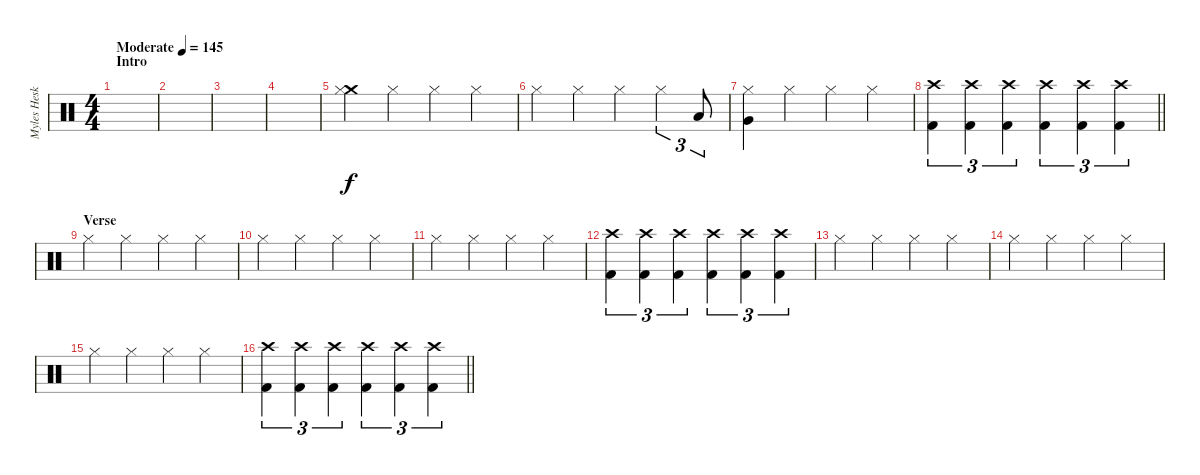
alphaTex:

\track ("Myles Heskett" "Myles Hesk") {instrument percussion}
\staff {score}
\articulation defaults
\ts (4 4)
\section ("" "Intro")
\tempo (145 "Moderate")
\clef neutral
\ks c
|
|
|
|
("Crash medium (hit)" "Hi-Hat (closed)").4 "Hi-Hat (closed)".4 "Hi-Hat (closed)".4 "Hi-Hat (closed)".4 |
"Hi-Hat (closed)".4 "Hi-Hat (closed)".4 "Hi-Hat (closed)".4 "Hi-Hat (closed)".4{tu (3 2)} "Low Tom (hit)".8{tu (3 2)} |
("Hi-Hat (closed)" "Very Low Tom (hit)").4 "Hi-Hat (closed)".4 "Hi-Hat (closed)".4 "Hi-Hat (closed)".4 |
\barLineRight lightlight
("Crash high (hit)" "Kick (hit) 2").4{tu (3 2)} ("Crash high (hit)" "Kick (hit) 2").4{tu (3 2)} ("Crash high (hit)" "Kick (hit) 2").4{tu (3 2)} ("Crash high (hit)" "Kick (hit) 2").4{tu (3 2)} ("Crash high (hit)" "Kick (hit) 2").4{tu (3 2)} ("Crash high (hit)" "Kick (hit) 2").4{tu (3 2)} |
\section ("" "Verse")
"Hi-Hat (closed)".4 "Hi-Hat (closed)".4 "Hi-Hat (closed)".4 "Hi-Hat (closed)".4 |
"Hi-Hat (closed)".4 "Hi-Hat (closed)".4 "Hi-Hat (closed)".4 "Hi-Hat (closed)".4 |
"Hi-Hat (closed)".4 "Hi-Hat (closed)".4 "Hi-Hat (closed)".4 "Hi-Hat (closed)".4 |
("Crash high (hit)" "Kick (hit) 2").4{tu (3 2)} ("Crash high (hit)" "Kick (hit) 2").4{tu (3 2)} ("Crash high (hit)" "Kick (hit) 2").4{tu (3 2)} ("Crash high (hit)" "Kick (hit) 2").4{tu (3 2)} ("Crash high (hit)" "Kick (hit) 2").4{tu (3 2)} ("Crash high (hit)" "Kick (hit) 2").4{tu (3 2)} |
"Hi-Hat (closed)".4 "Hi-Hat (closed)".4 "Hi-Hat (closed)".4 "Hi-Hat (closed)".4 |
"Hi-Hat (closed)".4 "Hi-Hat (closed)".4 "Hi-Hat (closed)".4 "Hi-Hat (closed)".4 |
"Hi-Hat (closed)".4 "Hi-Hat (closed)".4 "Hi-Hat (closed)".4 "Hi-Hat (closed)".4 |
\barLineRight lightlight
("Crash high (hit)" "Kick (hit) 2").4{tu (3 2)} ("Crash high (hit)" "Kick (hit) 2").4{tu (3 2)} ("Crash high (hit)" "Kick (hit) 2").4{tu (3 2)} ("Crash high (hit)" "Kick (hit) 2").4{tu (3 2)} ("Crash high (hit)" "Kick (hit) 2").4{tu (3 2)} ("Crash high (hit)" "Kick (hit) 2").4{tu (3 2)}
